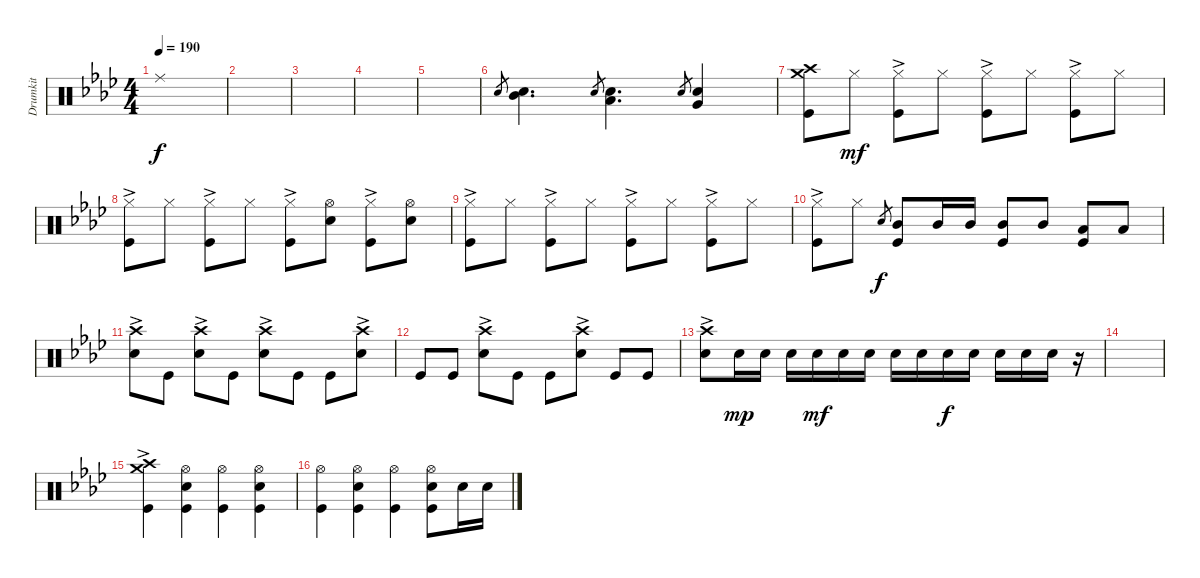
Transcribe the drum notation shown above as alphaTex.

\track ("Drumkit" "Drumkit") {instrument percussion}
\staff {score}
\articulation defaults
\ts (4 4)
\tempo 190
\clef neutral
\ks ab "Ride (middle)".1{dy f}
|
|
|
|
|
"Snare (hit)".8{gr} ("Mid Tom (hit)" "Snare (hit) 2").4{d} "Snare (hit)".8{gr} ("Low Tom (hit)" "Snare (hit) 2").4{d} "Snare (hit)".8{gr} ("Very Low Tom (hit)" "Snare (hit) 2").4 |
("Kick (hit)" "Crash medium (hit)" "Crash high (hit)").8 "Hi-Hat (closed)".8{dy mf} ("Hi-Hat (closed)" "Kick (hit)"{ac}).8 "Hi-Hat (closed)".8 ("Hi-Hat (closed)" "Kick (hit)"{ac}).8 "Hi-Hat (closed)".8 ("Hi-Hat (closed)" "Kick (hit)"{ac}).8 "Hi-Hat (closed)".8 |
("Kick (hit)"{ac} "Hi-Hat (closed)").8 "Hi-Hat (closed)".8 ("Hi-Hat (closed)" "Kick (hit)"{ac}).8 "Hi-Hat (closed)".8 ("Hi-Hat (closed)" "Kick (hit)"{ac}).8 ("Hi-Hat (open)" "Snare (hit) 2").8 ("Hi-Hat (closed)" "Kick (hit)"{ac}).8 ("Hi-Hat (open)" "Snare (hit) 2").8 |
("Kick (hit)"{ac} "Hi-Hat (closed)").8 "Hi-Hat (closed)".8 ("Hi-Hat (closed)" "Kick (hit)"{ac}).8 "Hi-Hat (closed)".8 ("Hi-Hat (closed)" "Kick (hit)"{ac}).8 "Hi-Hat (closed)".8 ("Hi-Hat (closed)" "Kick (hit)"{ac}).8 "Hi-Hat (closed)".8 |
("Kick (hit)"{ac} "Hi-Hat (closed)").8 "Hi-Hat (closed)".8 "Snare (hit)".8{gr dy f} ("Kick (hit)" "Mid Tom (hit)").8 "Mid Tom (hit)".16 "Mid Tom (hit)".16 ("Kick (hit)" "Mid Tom (hit)").8 "Mid Tom (hit)".8 ("Kick (hit)" "Low Tom (hit)").8 "Low Tom (hit)".8 |
("Snare (hit) 2" "Crash high (hit)"{ac}).8 "Kick (hit)".8 ("Snare (hit) 2" "Crash high (hit)"{ac}).8 "Kick (hit)".8 ("Snare (hit) 2" "Crash high (hit)"{ac}).8 "Kick (hit)".8 "Kick (hit)".8 ("Snare (hit) 2" "Crash high (hit)"{ac}).8 |
"Kick (hit)".8 "Kick (hit)".8 ("Snare (hit) 2" "Crash high (hit)"{ac}).8 "Kick (hit)".8 "Kick (hit)".8 ("Crash high (hit)"{ac} "Snare (hit) 2").8 "Kick (hit)".8 "Kick (hit)".8 |
("Snare (hit) 2" "Crash high (hit)"{ac}).8 "Snare (hit) 2".16{dy mp} "Snare (hit) 2".16 "Snare (hit) 2".16 "Snare (hit) 2".16{dy mf} "Snare (hit) 2".16 "Snare (hit) 2".16 "Snare (hit) 2".16 "Snare (hit) 2".16 "Snare (hit) 2".16{dy f} "Snare (hit) 2".16 "Snare (hit) 2".16 "Snare (hit) 2".16 "Snare (hit) 2".16 r.16 |
|
("Kick (hit)" "Crash high (hit)"{ac} "Crash medium (hit)"{ac}).4 ("Snare (hit) 2" "Hi-Hat (open)" "Kick (hit)").4 ("Kick (hit)" "Hi-Hat (open)").4 ("Snare (hit) 2" "Hi-Hat (open)" "Kick (hit)").4 |
("Kick (hit)" "Hi-Hat (open)").4 ("Snare (hit) 2" "Hi-Hat (open)" "Kick (hit)").4 ("Kick (hit)" "Hi-Hat (open)").4 ("Snare (hit) 2" "Hi-Hat (open)" "Kick (hit)").8 "Snare (hit) 2".16 "Snare (hit) 2".16
